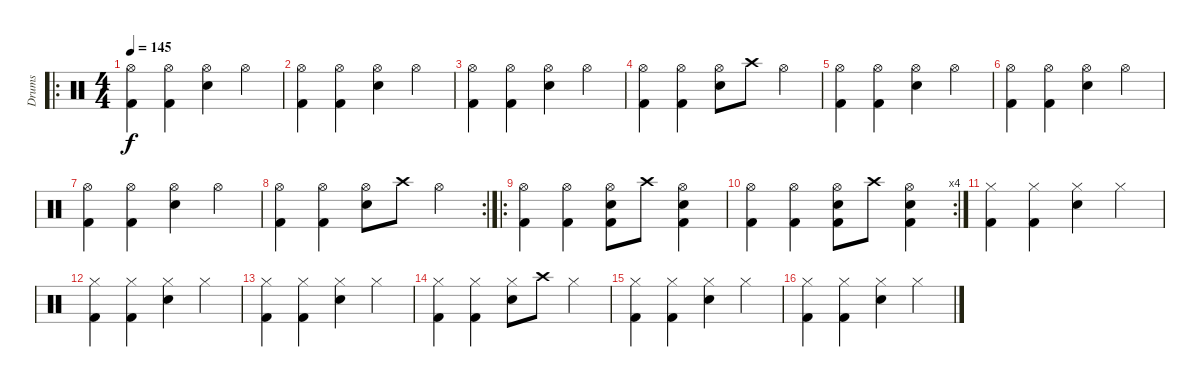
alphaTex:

\track ("Drums" "Drums") {instrument percussion}
\staff {score}
\articulation defaults
\ro
\ts (4 4)
\tempo 145
\clef neutral
\ks c
("Hi-Hat (open)" "Kick (hit) 2").4{dy f} ("Hi-Hat (open)" "Kick (hit) 2").4 ("Hi-Hat (open)" "Electric Snare (hit)").4 "Hi-Hat (open)".4 |
("Hi-Hat (open)" "Kick (hit) 2").4 ("Hi-Hat (open)" "Kick (hit) 2").4 ("Hi-Hat (open)" "Electric Snare (hit)").4 "Hi-Hat (open)".4 |
("Hi-Hat (open)" "Kick (hit) 2").4 ("Hi-Hat (open)" "Kick (hit) 2").4 ("Hi-Hat (open)" "Electric Snare (hit)").4 "Hi-Hat (open)".4 |
("Hi-Hat (open)" "Kick (hit) 2").4 ("Hi-Hat (open)" "Kick (hit) 2").4 ("Hi-Hat (open)" "Electric Snare (hit)").8 "Crash high (hit)".8 "Hi-Hat (open)".4 |
("Hi-Hat (open)" "Kick (hit) 2").4 ("Hi-Hat (open)" "Kick (hit) 2").4 ("Hi-Hat (open)" "Electric Snare (hit)").4 "Hi-Hat (open)".4 |
("Hi-Hat (open)" "Kick (hit) 2").4 ("Hi-Hat (open)" "Kick (hit) 2").4 ("Hi-Hat (open)" "Electric Snare (hit)").4 "Hi-Hat (open)".4 |
("Hi-Hat (open)" "Kick (hit) 2").4 ("Hi-Hat (open)" "Kick (hit) 2").4 ("Hi-Hat (open)" "Electric Snare (hit)").4 "Hi-Hat (open)".4 |
\rc 2
("Hi-Hat (open)" "Kick (hit) 2").4 ("Hi-Hat (open)" "Kick (hit) 2").4 ("Hi-Hat (open)" "Electric Snare (hit)").8 "Crash high (hit)".8 "Hi-Hat (open)".4 |
\ro
("Hi-Hat (open)" "Kick (hit) 2").4 ("Hi-Hat (open)" "Kick (hit) 2").4 ("Hi-Hat (open)" "Electric Snare (hit)" "Kick (hit) 2").8 "Crash high (hit)".8 ("Hi-Hat (open)" "Electric Snare (hit)" "Kick (hit) 2").4 |
\rc 4
("Hi-Hat (open)" "Kick (hit) 2").4 ("Hi-Hat (open)" "Kick (hit) 2").4 ("Hi-Hat (open)" "Electric Snare (hit)" "Kick (hit) 2").8 "Crash high (hit)".8 ("Hi-Hat (open)" "Electric Snare (hit)" "Kick (hit) 2").4 |
("Hi-Hat (closed)" "Kick (hit) 2").4 ("Hi-Hat (closed)" "Kick (hit) 2").4 ("Hi-Hat (closed)" "Electric Snare (hit)").4 "Hi-Hat (closed)".4 |
("Hi-Hat (closed)" "Kick (hit) 2").4 ("Hi-Hat (closed)" "Kick (hit) 2").4 ("Hi-Hat (closed)" "Electric Snare (hit)").4 "Hi-Hat (closed)".4 |
("Hi-Hat (closed)" "Kick (hit) 2").4 ("Hi-Hat (closed)" "Kick (hit) 2").4 ("Hi-Hat (closed)" "Electric Snare (hit)").4 "Hi-Hat (closed)".4 |
("Hi-Hat (closed)" "Kick (hit) 2").4 ("Hi-Hat (closed)" "Kick (hit) 2").4 ("Hi-Hat (closed)" "Electric Snare (hit)").8 "Crash high (hit)".8 "Hi-Hat (closed)".4 |
("Hi-Hat (closed)" "Kick (hit) 2").4 ("Hi-Hat (closed)" "Kick (hit) 2").4 ("Hi-Hat (closed)" "Electric Snare (hit)").4 "Hi-Hat (closed)".4 |
("Hi-Hat (closed)" "Kick (hit) 2").4 ("Hi-Hat (closed)" "Kick (hit) 2").4 ("Hi-Hat (closed)" "Electric Snare (hit)").4 "Hi-Hat (closed)".4
